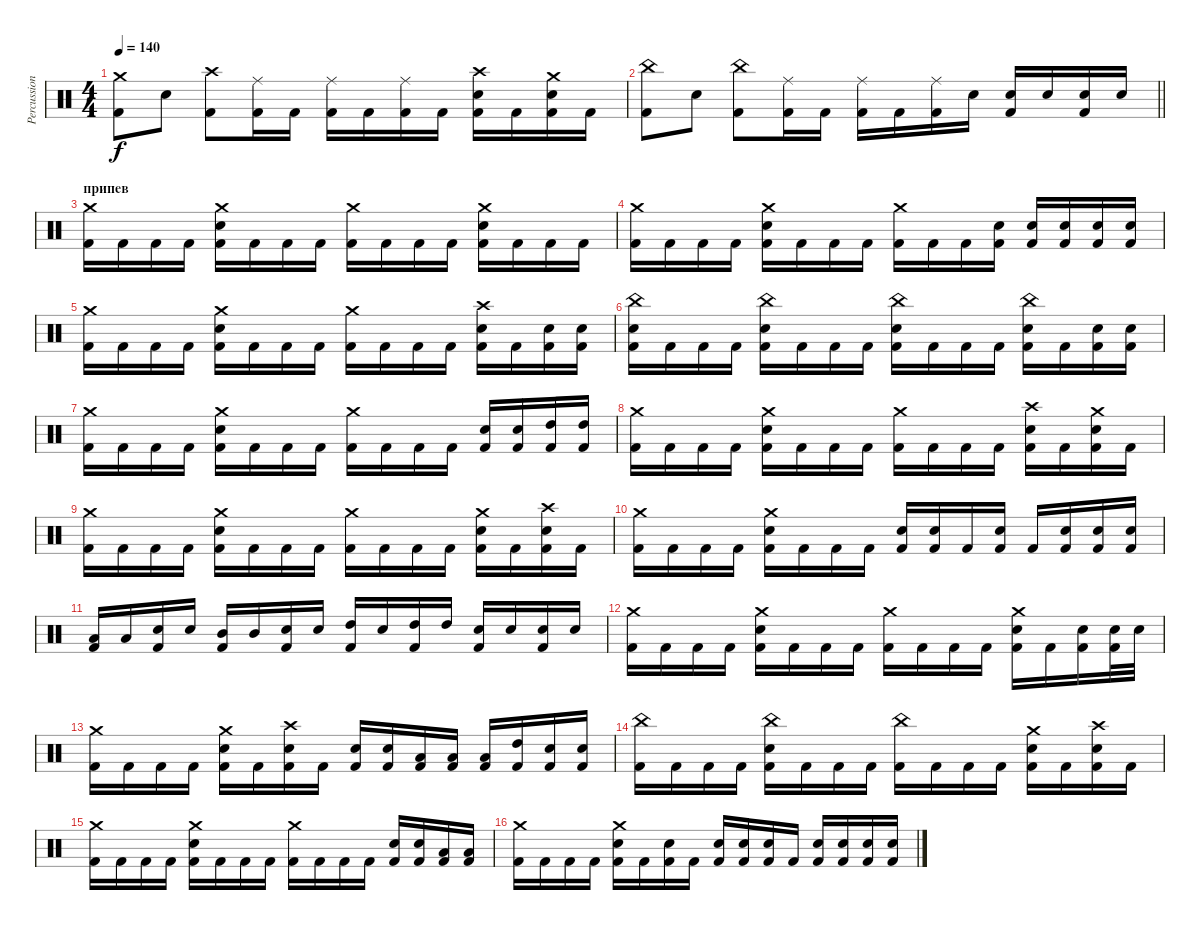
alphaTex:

\track ("Percussion" "Percussion") {instrument percussion}
\staff {score}
\articulation defaults
\ts (4 4)
\tempo 140
\clef neutral
\ks c
("Crash medium (hit)" "Kick (hit) 2").8{dy f} "Snare (hit) 2".8 ("Crash high (hit)" "Kick (hit) 2").8 ("Ride (middle)" "Kick (hit) 2").16 "Kick (hit) 2".16 ("Ride (middle)" "Kick (hit) 2").16 "Kick (hit) 2".16 ("Ride (middle)" "Kick (hit) 2").16 "Kick (hit) 2".16 ("Snare (hit) 2" "Crash high (hit)" "Kick (hit) 2").16 "Kick (hit) 2".16 ("Snare (hit) 2" "Crash medium (hit)" "Kick (hit) 2").16 "Kick (hit) 2".16 |
\barLineRight lightlight
("China (hit)" "Kick (hit) 2").8 "Snare (hit) 2".8 ("China (hit)" "Kick (hit) 2").8 ("Ride (middle)" "Kick (hit) 2").16 "Kick (hit) 2".16 ("Ride (middle)" "Kick (hit) 2").16 "Kick (hit) 2".16 ("Ride (middle)" "Kick (hit) 2").16 "Snare (hit) 2".16 ("Snare (hit) 2" "Kick (hit) 2").16 "Snare (hit) 2".16 ("Snare (hit) 2" "Kick (hit) 2").16 "Snare (hit) 2".16 |
\section ("" "припев")
("Crash medium (hit)" "Kick (hit) 2").16 "Kick (hit) 2".16 "Kick (hit) 2".16 "Kick (hit) 2".16 ("Crash medium (hit)" "Snare (hit) 2" "Kick (hit) 2").16 "Kick (hit) 2".16 "Kick (hit) 2".16 "Kick (hit) 2".16 ("Crash medium (hit)" "Kick (hit) 2").16 "Kick (hit) 2".16 "Kick (hit) 2".16 "Kick (hit) 2".16 ("Crash medium (hit)" "Snare (hit) 2" "Kick (hit) 2").16 "Kick (hit) 2".16 "Kick (hit) 2".16 "Kick (hit) 2".16 |
("Crash medium (hit)" "Kick (hit) 2").16 "Kick (hit) 2".16 "Kick (hit) 2".16 "Kick (hit) 2".16 ("Crash medium (hit)" "Snare (hit) 2" "Kick (hit) 2").16 "Kick (hit) 2".16 "Kick (hit) 2".16 "Kick (hit) 2".16 ("Crash medium (hit)" "Kick (hit) 2").16 "Kick (hit) 2".16 "Kick (hit) 2".16 ("Snare (hit) 2" "Kick (hit) 2").16 ("Snare (hit) 2" "Kick (hit) 2").16 ("Snare (hit) 2" "Kick (hit) 2").16 ("Snare (hit) 2" "Kick (hit) 2").16 ("Snare (hit) 2" "Kick (hit) 2").16 |
("Crash medium (hit)" "Kick (hit) 2").16 "Kick (hit) 2".16 "Kick (hit) 2".16 "Kick (hit) 2".16 ("Crash medium (hit)" "Snare (hit) 2" "Kick (hit) 2").16 "Kick (hit) 2".16 "Kick (hit) 2".16 "Kick (hit) 2".16 ("Crash medium (hit)" "Kick (hit) 2").16 "Kick (hit) 2".16 "Kick (hit) 2".16 "Kick (hit) 2".16 ("Crash high (hit)" "Snare (hit) 2" "Kick (hit) 2").16 "Kick (hit) 2".16 ("Snare (hit) 2" "Kick (hit) 2").16 ("Snare (hit) 2" "Kick (hit) 2").16 |
("China (hit)" "Snare (hit) 2" "Kick (hit) 2").16 "Kick (hit) 2".16 "Kick (hit) 2".16 "Kick (hit) 2".16 ("China (hit)" "Snare (hit) 2" "Kick (hit) 2").16 "Kick (hit) 2".16 "Kick (hit) 2".16 "Kick (hit) 2".16 ("China (hit)" "Snare (hit) 2" "Kick (hit) 2").16 "Kick (hit) 2".16 "Kick (hit) 2".16 "Kick (hit) 2".16 ("China (hit)" "Snare (hit) 2" "Kick (hit) 2").16 "Kick (hit) 2".16 ("Snare (hit) 2" "Kick (hit) 2").16 ("Snare (hit) 2" "Kick (hit) 2").16 |
("Crash medium (hit)" "Kick (hit) 2").16 "Kick (hit) 2".16 "Kick (hit) 2".16 "Kick (hit) 2".16 ("Crash medium (hit)" "Snare (hit) 2" "Kick (hit) 2").16 "Kick (hit) 2".16 "Kick (hit) 2".16 "Kick (hit) 2".16 ("Crash medium (hit)" "Kick (hit) 2").16 "Kick (hit) 2".16 "Kick (hit) 2".16 "Kick (hit) 2".16 ("Snare (hit) 2" "Kick (hit) 2").16 ("Snare (hit) 2" "Kick (hit) 2").16 ("High Tom (hit)" "Kick (hit) 2").16 ("High Tom (hit)" "Kick (hit) 2").16 |
("Crash medium (hit)" "Kick (hit) 2").16 "Kick (hit) 2".16 "Kick (hit) 2".16 "Kick (hit) 2".16 ("Crash medium (hit)" "Snare (hit) 2" "Kick (hit) 2").16 "Kick (hit) 2".16 "Kick (hit) 2".16 "Kick (hit) 2".16 ("Crash medium (hit)" "Kick (hit) 2").16 "Kick (hit) 2".16 "Kick (hit) 2".16 "Kick (hit) 2".16 ("Crash high (hit)" "Snare (hit) 2" "Kick (hit) 2").16 "Kick (hit) 2".16 ("Crash medium (hit)" "Snare (hit) 2" "Kick (hit) 2").16 "Kick (hit) 2".16 |
("Crash medium (hit)" "Kick (hit) 2").16 "Kick (hit) 2".16 "Kick (hit) 2".16 "Kick (hit) 2".16 ("Crash medium (hit)" "Snare (hit) 2" "Kick (hit) 2").16 "Kick (hit) 2".16 "Kick (hit) 2".16 "Kick (hit) 2".16 ("Crash medium (hit)" "Kick (hit) 2").16 "Kick (hit) 2".16 "Kick (hit) 2".16 "Kick (hit) 2".16 ("Crash medium (hit)" "Snare (hit) 2" "Kick (hit) 2").16 "Kick (hit) 2".16 ("Crash high (hit)" "Snare (hit) 2" "Kick (hit) 2").16 "Kick (hit) 2".16 |
("Crash medium (hit)" "Kick (hit) 2").16 "Kick (hit) 2".16 "Kick (hit) 2".16 "Kick (hit) 2".16 ("Crash medium (hit)" "Snare (hit) 2" "Kick (hit) 2").16 "Kick (hit) 2".16 "Kick (hit) 2".16 "Kick (hit) 2".16 ("Snare (hit) 2" "Kick (hit) 2").16 ("Snare (hit) 2" "Kick (hit) 2").16 "Kick (hit) 2".16 ("Snare (hit) 2" "Kick (hit) 2").16 "Kick (hit) 2".16 ("Snare (hit) 2" "Kick (hit) 2").16 ("Snare (hit) 2" "Kick (hit) 2").16 ("Snare (hit) 2" "Kick (hit) 2").16 |
("Low Tom (hit)" "Kick (hit) 2").16 "Low Tom (hit)".16 ("Snare (hit) 2" "Kick (hit) 2").16 "Snare (hit) 2".16 ("Mid Tom (hit)" "Kick (hit) 2").16 "Mid Tom (hit)".16 ("Snare (hit) 2" "Kick (hit) 2").16 "Snare (hit) 2".16 ("High Tom (hit)" "Kick (hit) 2").16 "Snare (hit) 2".16 ("High Tom (hit)" "Kick (hit) 2").16 "High Tom (hit)".16 ("Snare (hit) 2" "Kick (hit) 2").16 "Snare (hit) 2".16 ("Snare (hit) 2" "Kick (hit) 2").16 "Snare (hit) 2".16 |
("Crash medium (hit)" "Kick (hit) 2").16 "Kick (hit) 2".16 "Kick (hit) 2".16 "Kick (hit) 2".16 ("Crash medium (hit)" "Snare (hit) 2" "Kick (hit) 2").16 "Kick (hit) 2".16 "Kick (hit) 2".16 "Kick (hit) 2".16 ("Crash medium (hit)" "Kick (hit) 2").16 "Kick (hit) 2".16 "Kick (hit) 2".16 "Kick (hit) 2".16 ("Crash medium (hit)" "Snare (hit) 2" "Kick (hit) 2").16 "Kick (hit) 2".16 ("Snare (hit) 2" "Kick (hit) 2").16 ("Snare (hit) 2" "Kick (hit) 2").32 "Snare (hit) 2".32 |
("Crash medium (hit)" "Kick (hit) 2").16 "Kick (hit) 2".16 "Kick (hit) 2".16 "Kick (hit) 2".16 ("Crash medium (hit)" "Snare (hit) 2" "Kick (hit) 2").16 "Kick (hit) 2".16 ("Crash high (hit)" "Snare (hit) 2" "Kick (hit) 2").16 "Kick (hit) 2".16 ("Snare (hit) 2" "Kick (hit) 2").16 ("Snare (hit) 2" "Kick (hit) 2").16 ("Low Tom (hit)" "Kick (hit) 2").16 ("Low Tom (hit)" "Kick (hit) 2").16 ("Low Tom (hit)" "Kick (hit) 2").16 ("High Tom (hit)" "Kick (hit) 2").16 ("Snare (hit) 2" "Kick (hit) 2").16 ("Snare (hit) 2" "Kick (hit) 2").16 |
("China (hit)" "Kick (hit) 2").16 "Kick (hit) 2".16 "Kick (hit) 2".16 "Kick (hit) 2".16 ("China (hit)" "Snare (hit) 2" "Kick (hit) 2").16 "Kick (hit) 2".16 "Kick (hit) 2".16 "Kick (hit) 2".16 ("China (hit)" "Kick (hit) 2").16 "Kick (hit) 2".16 "Kick (hit) 2".16 "Kick (hit) 2".16 ("Crash medium (hit)" "Snare (hit) 2" "Kick (hit) 2").16 "Kick (hit) 2".16 ("Crash high (hit)" "Snare (hit) 2" "Kick (hit) 2").16 "Kick (hit) 2".16 |
("Crash medium (hit)" "Kick (hit) 2").16 "Kick (hit) 2".16 "Kick (hit) 2".16 "Kick (hit) 2".16 ("Crash medium (hit)" "Snare (hit) 2" "Kick (hit) 2").16 "Kick (hit) 2".16 "Kick (hit) 2".16 "Kick (hit) 2".16 ("Crash medium (hit)" "Kick (hit) 2").16 "Kick (hit) 2".16 "Kick (hit) 2".16 "Kick (hit) 2".16 ("Snare (hit) 2" "Kick (hit) 2").16 ("Snare (hit) 2" "Kick (hit) 2").16 ("Low Tom (hit)" "Kick (hit) 2").16 ("Low Tom (hit)" "Kick (hit) 2").16 |
("Crash medium (hit)" "Kick (hit) 2").16 "Kick (hit) 2".16 "Kick (hit) 2".16 "Kick (hit) 2".16 ("Crash medium (hit)" "Snare (hit) 2" "Kick (hit) 2").16 "Kick (hit) 2".16 ("Snare (hit) 2" "Kick (hit) 2").16 "Kick (hit) 2".16 ("Snare (hit) 2" "Kick (hit) 2").16 ("Snare (hit) 2" "Kick (hit) 2").16 ("Snare (hit) 2" "Kick (hit) 2").16 "Kick (hit) 2".16 ("Snare (hit) 2" "Kick (hit) 2").16 ("Snare (hit) 2" "Kick (hit) 2").16 ("Snare (hit) 2" "Kick (hit) 2").16 ("Snare (hit) 2" "Kick (hit) 2").16
